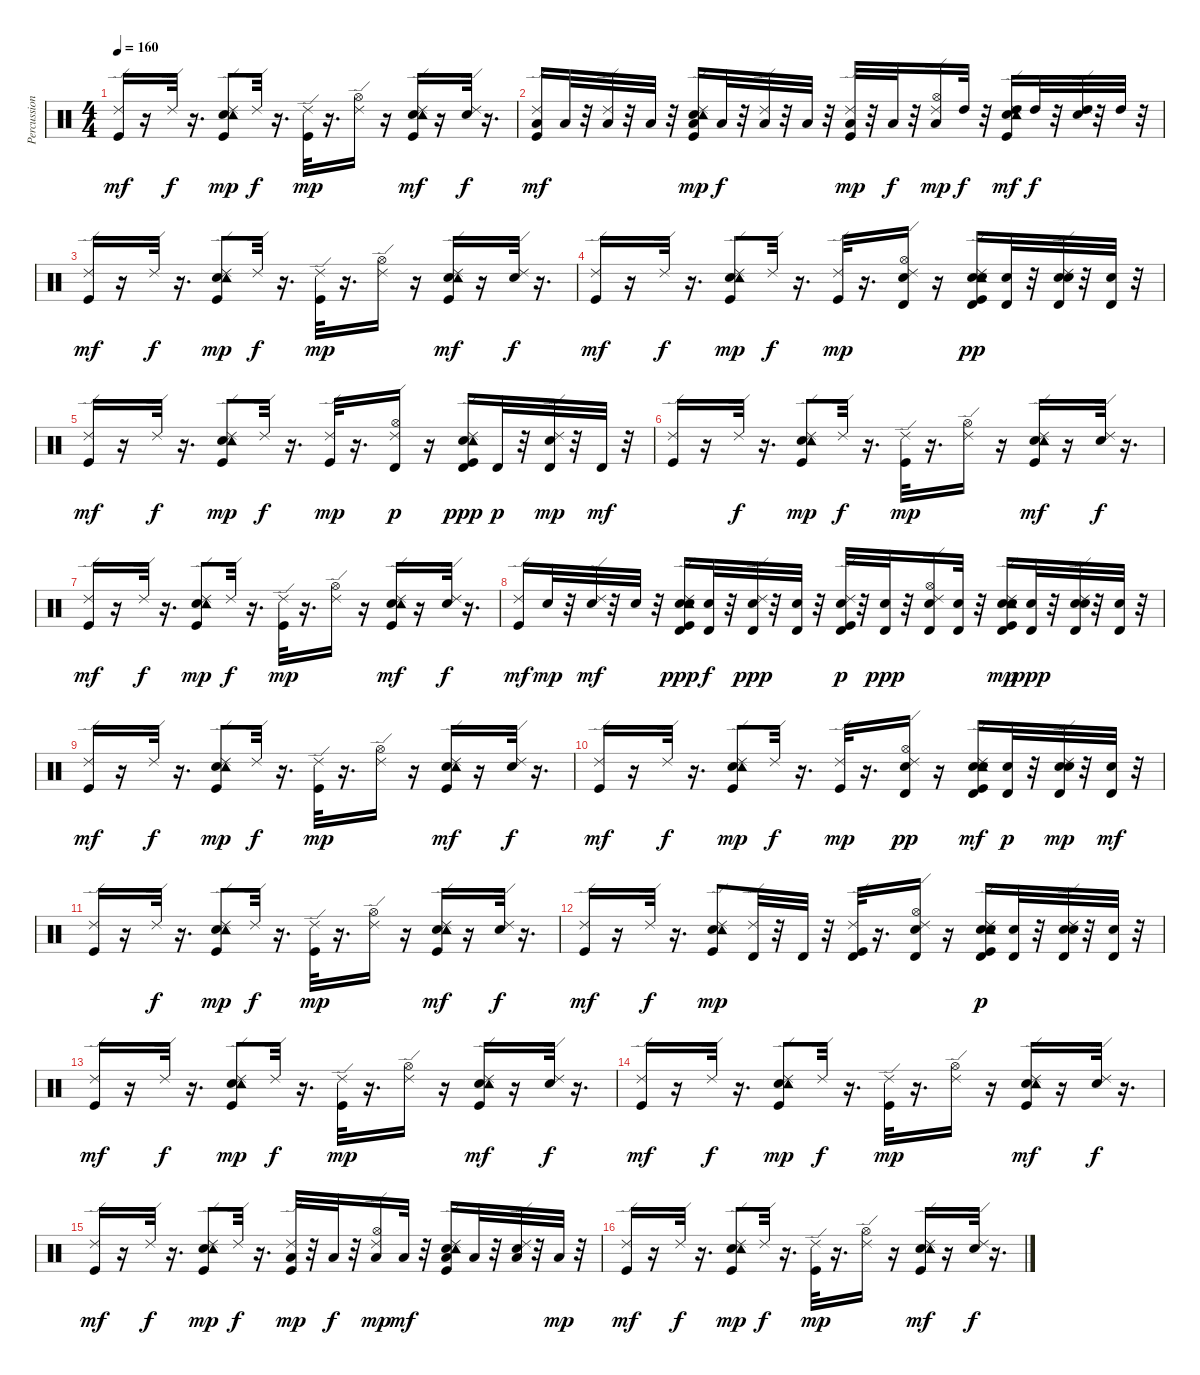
\track ("Percussion" "Percussion") {instrument percussion}
\staff {score}
\articulation defaults
\ts (4 4)
\tempo 160
\clef neutral
\ks c
("Kick (hit)" "Ride (edge) 2").16{dy mf} r.16 "Ride (edge) 2".32{dy f} r.16{d} ("Kick (hit)" "Electric Snare (hit)" "Tambourine (hit)" "Ride (edge) 2").8{dy mp} "Ride (edge) 2".32{dy f} r.16{d} ("Kick (hit)" "Ride (edge) 2").32{dy mp} r.16{d} ("Hi-Hat (open)" "Ride (edge) 2").16 r.16 ("Kick (hit)" "Electric Snare (hit)" "Tambourine (hit)" "Ride (edge) 2").16{dy mf} r.16 ("Electric Snare (hit)" "Ride (edge) 2").32{dy f} r.16{d} |
("Kick (hit)" "Low Floor Tom (hit)" "Ride (edge) 2").16{dy mf} "Low Floor Tom (hit)".32 r.32 ("Low Floor Tom (hit)" "Ride (edge) 2").32 r.32 "Low Floor Tom (hit)".32 r.32 ("Kick (hit)" "Electric Snare (hit)" "Low Floor Tom (hit)" "Tambourine (hit)" "Ride (edge) 2").16{dy mp} "Low Floor Tom (hit)".32{dy f} r.32 ("Low Tom (hit)" "Ride (edge) 2").32 r.32 "Low Tom (hit)".32 r.32 ("Kick (hit)" "Low Tom (hit)" "Ride (edge) 2").32{dy mp} r.32 "Low Tom (hit)".32{dy f} r.32 ("Low Tom (hit)" "Hi-Hat (open)" "Ride (edge) 2").16{dy mp} "High Tom (hit)".32{dy f} r.32 ("Kick (hit)" "Electric Snare (hit)" "High Tom (hit)" "Tambourine (hit)" "Ride (edge) 2").16{dy mf} "High Tom (hit)".32{dy f} r.32 ("Electric Snare (hit)" "High Tom (hit)" "Ride (edge) 2").32 r.32 "High Tom (hit)".32 r.32 |
("Kick (hit)" "Ride (edge) 2").16{dy mf} r.16 "Ride (edge) 2".32{dy f} r.16{d} ("Kick (hit)" "Electric Snare (hit)" "Tambourine (hit)" "Ride (edge) 2").8{dy mp} "Ride (edge) 2".32{dy f} r.16{d} ("Kick (hit)" "Ride (edge) 2").32{dy mp} r.16{d} ("Hi-Hat (open)" "Ride (edge) 2").16 r.16 ("Kick (hit)" "Electric Snare (hit)" "Tambourine (hit)" "Ride (edge) 2").16{dy mf} r.16 ("Electric Snare (hit)" "Ride (edge) 2").32{dy f} r.16{d} |
("Kick (hit)" "Ride (edge) 2").16{dy mf} r.16 "Ride (edge) 2".32{dy f} r.16{d} ("Kick (hit)" "Electric Snare (hit)" "Tambourine (hit)" "Ride (edge) 2").8{dy mp} "Ride (edge) 2".32{dy f} r.16{d} ("Kick (hit)" "Ride (edge) 2").32{dy mp} r.16{d} ("Snare (hit) 2" "Hi-Hat (open)" "Ride (edge) 2" "Timbale high (hit)").16 r.16 ("Kick (hit)" "Snare (hit) 2" "Electric Snare (hit)" "Tambourine (hit)" "Ride (edge) 2" "Timbale high (hit)").16{dy pp} ("Snare (hit) 2" "Timbale high (hit)").32 r.32 ("Snare (hit) 2" "Electric Snare (hit)" "Ride (edge) 2" "Timbale high (hit)").32 r.32 ("Snare (hit) 2" "Timbale high (hit)").32 r.32 |
("Kick (hit)" "Ride (edge) 2").16{dy mf} r.16 "Ride (edge) 2".32{dy f} r.16{d} ("Kick (hit)" "Electric Snare (hit)" "Tambourine (hit)" "Ride (edge) 2").8{dy mp} "Ride (edge) 2".32{dy f} r.16{d} ("Kick (hit)" "Ride (edge) 2").32{dy mp} r.16{d} ("Hi-Hat (open)" "Ride (edge) 2" "Timbale high (hit)").16{dy p} r.16 ("Kick (hit)" "Electric Snare (hit)" "Tambourine (hit)" "Ride (edge) 2" "Timbale high (hit)").16{dy ppp} "Timbale high (hit)".32{dy p} r.32 ("Electric Snare (hit)" "Ride (edge) 2" "Timbale high (hit)").32{dy mp} r.32 "Timbale high (hit)".32{dy mf} r.32 |
("Kick (hit)" "Ride (edge) 2").16 r.16 "Ride (edge) 2".32{dy f} r.16{d} ("Kick (hit)" "Electric Snare (hit)" "Tambourine (hit)" "Ride (edge) 2").8{dy mp} "Ride (edge) 2".32{dy f} r.16{d} ("Kick (hit)" "Ride (edge) 2").32{dy mp} r.16{d} ("Hi-Hat (open)" "Ride (edge) 2").16 r.16 ("Kick (hit)" "Electric Snare (hit)" "Tambourine (hit)" "Ride (edge) 2").16{dy mf} r.16 ("Electric Snare (hit)" "Ride (edge) 2").32{dy f} r.16{d} |
("Kick (hit)" "Ride (edge) 2").16{dy mf} r.16 "Ride (edge) 2".32{dy f} r.16{d} ("Kick (hit)" "Electric Snare (hit)" "Tambourine (hit)" "Ride (edge) 2").8{dy mp} "Ride (edge) 2".32{dy f} r.16{d} ("Kick (hit)" "Ride (edge) 2").32{dy mp} r.16{d} ("Hi-Hat (open)" "Ride (edge) 2").16 r.16 ("Kick (hit)" "Electric Snare (hit)" "Tambourine (hit)" "Ride (edge) 2").16{dy mf} r.16 ("Electric Snare (hit)" "Ride (edge) 2").32{dy f} r.16{d} |
("Kick (hit)" "Ride (edge) 2").16{dy mf} "Snare (hit) 2".32{dy mp} r.32 ("Snare (hit) 2" "Ride (edge) 2").32{dy mf} r.32 "Snare (hit) 2".32 r.32 ("Kick (hit)" "Snare (hit) 2" "Electric Snare (hit)" "Tambourine (hit)" "Ride (edge) 2" "Timbale high (hit)").16{dy ppp} ("Snare (hit) 2" "Timbale high (hit)").32{dy f} r.32 ("Snare (hit) 2" "Ride (edge) 2" "Timbale high (hit)").32{dy ppp} r.32 ("Snare (hit) 2" "Timbale high (hit)").32 r.32 ("Kick (hit)" "Snare (hit) 2" "Ride (edge) 2" "Timbale high (hit)").32{dy p} r.32 ("Snare (hit) 2" "Timbale high (hit)").32{dy ppp} r.32 ("Snare (hit) 2" "Hi-Hat (open)" "Ride (edge) 2" "Timbale high (hit)").16 ("Snare (hit) 2" "Timbale high (hit)").32 r.32 ("Kick (hit)" "Snare (hit) 2" "Electric Snare (hit)" "Tambourine (hit)" "Ride (edge) 2" "Timbale high (hit)").16{dy mp} ("Snare (hit) 2" "Timbale high (hit)").32{dy ppp} r.32 ("Snare (hit) 2" "Electric Snare (hit)" "Ride (edge) 2" "Timbale high (hit)").32 r.32 ("Snare (hit) 2" "Timbale high (hit)").32 r.32 |
("Kick (hit)" "Ride (edge) 2").16{dy mf} r.16 "Ride (edge) 2".32{dy f} r.16{d} ("Kick (hit)" "Electric Snare (hit)" "Tambourine (hit)" "Ride (edge) 2").8{dy mp} "Ride (edge) 2".32{dy f} r.16{d} ("Kick (hit)" "Ride (edge) 2").32{dy mp} r.16{d} ("Hi-Hat (open)" "Ride (edge) 2").16 r.16 ("Kick (hit)" "Electric Snare (hit)" "Tambourine (hit)" "Ride (edge) 2").16{dy mf} r.16 ("Electric Snare (hit)" "Ride (edge) 2").32{dy f} r.16{d} |
("Kick (hit)" "Ride (edge) 2").16{dy mf} r.16 "Ride (edge) 2".32{dy f} r.16{d} ("Kick (hit)" "Electric Snare (hit)" "Tambourine (hit)" "Ride (edge) 2").8{dy mp} "Ride (edge) 2".32{dy f} r.16{d} ("Kick (hit)" "Ride (edge) 2").32{dy mp} r.16{d} ("Snare (hit) 2" "Hi-Hat (open)" "Ride (edge) 2" "Timbale high (hit)").16{dy pp} r.16 ("Kick (hit)" "Snare (hit) 2" "Electric Snare (hit)" "Tambourine (hit)" "Ride (edge) 2" "Timbale high (hit)").16{dy mf} ("Snare (hit) 2" "Timbale high (hit)").32{dy p} r.32 ("Snare (hit) 2" "Electric Snare (hit)" "Ride (edge) 2" "Timbale high (hit)").32{dy mp} r.32 ("Snare (hit) 2" "Timbale high (hit)").32{dy mf} r.32 |
("Kick (hit)" "Ride (edge) 2").16 r.16 "Ride (edge) 2".32{dy f} r.16{d} ("Kick (hit)" "Electric Snare (hit)" "Tambourine (hit)" "Ride (edge) 2").8{dy mp} "Ride (edge) 2".32{dy f} r.16{d} ("Kick (hit)" "Ride (edge) 2").32{dy mp} r.16{d} ("Hi-Hat (open)" "Ride (edge) 2").16 r.16 ("Kick (hit)" "Electric Snare (hit)" "Tambourine (hit)" "Ride (edge) 2").16{dy mf} r.16 ("Electric Snare (hit)" "Ride (edge) 2").32{dy f} r.16{d} |
("Kick (hit)" "Ride (edge) 2").16{dy mf} r.16 "Ride (edge) 2".32{dy f} r.16{d} ("Kick (hit)" "Electric Snare (hit)" "Tambourine (hit)" "Ride (edge) 2").8{dy mp} ("Ride (edge) 2" "Timbale high (hit)").32 r.32 "Timbale high (hit)".32 r.32 ("Kick (hit)" "Ride (edge) 2" "Timbale high (hit)").32 r.16{d} ("Snare (hit) 2" "Hi-Hat (open)" "Ride (edge) 2" "Timbale high (hit)").16 r.16 ("Kick (hit)" "Snare (hit) 2" "Electric Snare (hit)" "Tambourine (hit)" "Ride (edge) 2" "Timbale high (hit)").16{dy p} ("Snare (hit) 2" "Timbale high (hit)").32 r.32 ("Snare (hit) 2" "Electric Snare (hit)" "Ride (edge) 2" "Timbale high (hit)").32 r.32 ("Snare (hit) 2" "Timbale high (hit)").32 r.32 |
("Kick (hit)" "Ride (edge) 2").16{dy mf} r.16 "Ride (edge) 2".32{dy f} r.16{d} ("Kick (hit)" "Electric Snare (hit)" "Tambourine (hit)" "Ride (edge) 2").8{dy mp} "Ride (edge) 2".32{dy f} r.16{d} ("Kick (hit)" "Ride (edge) 2").32{dy mp} r.16{d} ("Hi-Hat (open)" "Ride (edge) 2").16 r.16 ("Kick (hit)" "Electric Snare (hit)" "Tambourine (hit)" "Ride (edge) 2").16{dy mf} r.16 ("Electric Snare (hit)" "Ride (edge) 2").32{dy f} r.16{d} |
("Kick (hit)" "Ride (edge) 2").16{dy mf} r.16 "Ride (edge) 2".32{dy f} r.16{d} ("Kick (hit)" "Electric Snare (hit)" "Tambourine (hit)" "Ride (edge) 2").8{dy mp} "Ride (edge) 2".32{dy f} r.16{d} ("Kick (hit)" "Ride (edge) 2").32{dy mp} r.16{d} ("Hi-Hat (open)" "Ride (edge) 2").16 r.16 ("Kick (hit)" "Electric Snare (hit)" "Tambourine (hit)" "Ride (edge) 2").16{dy mf} r.16 ("Electric Snare (hit)" "Ride (edge) 2").32{dy f} r.16{d} |
("Kick (hit)" "Ride (edge) 2").16{dy mf} r.16 "Ride (edge) 2".32{dy f} r.16{d} ("Kick (hit)" "Electric Snare (hit)" "Tambourine (hit)" "Ride (edge) 2").8{dy mp} "Ride (edge) 2".32{dy f} r.16{d} ("Kick (hit)" "Low Floor Tom (hit)" "Ride (edge) 2").32{dy mp} r.32 "Low Floor Tom (hit)".32{dy f} r.32 ("Low Floor Tom (hit)" "Hi-Hat (open)" "Ride (edge) 2").16{dy mp} "Low Floor Tom (hit)".32{dy mf} r.32 ("Kick (hit)" "Electric Snare (hit)" "Low Tom (hit)" "Tambourine (hit)" "Ride (edge) 2").16 "Low Tom (hit)".32 r.32 ("Electric Snare (hit)" "Low Tom (hit)" "Ride (edge) 2").32 r.32 "Low Tom (hit)".32{dy mp} r.32 |
("Kick (hit)" "Ride (edge) 2").16{dy mf} r.16 "Ride (edge) 2".32{dy f} r.16{d} ("Kick (hit)" "Electric Snare (hit)" "Tambourine (hit)" "Ride (edge) 2").8{dy mp} "Ride (edge) 2".32{dy f} r.16{d} ("Kick (hit)" "Ride (edge) 2").32{dy mp} r.16{d} ("Hi-Hat (open)" "Ride (edge) 2").16 r.16 ("Kick (hit)" "Electric Snare (hit)" "Tambourine (hit)" "Ride (edge) 2").16{dy mf} r.16 ("Electric Snare (hit)" "Ride (edge) 2").32{dy f} r.16{d}
